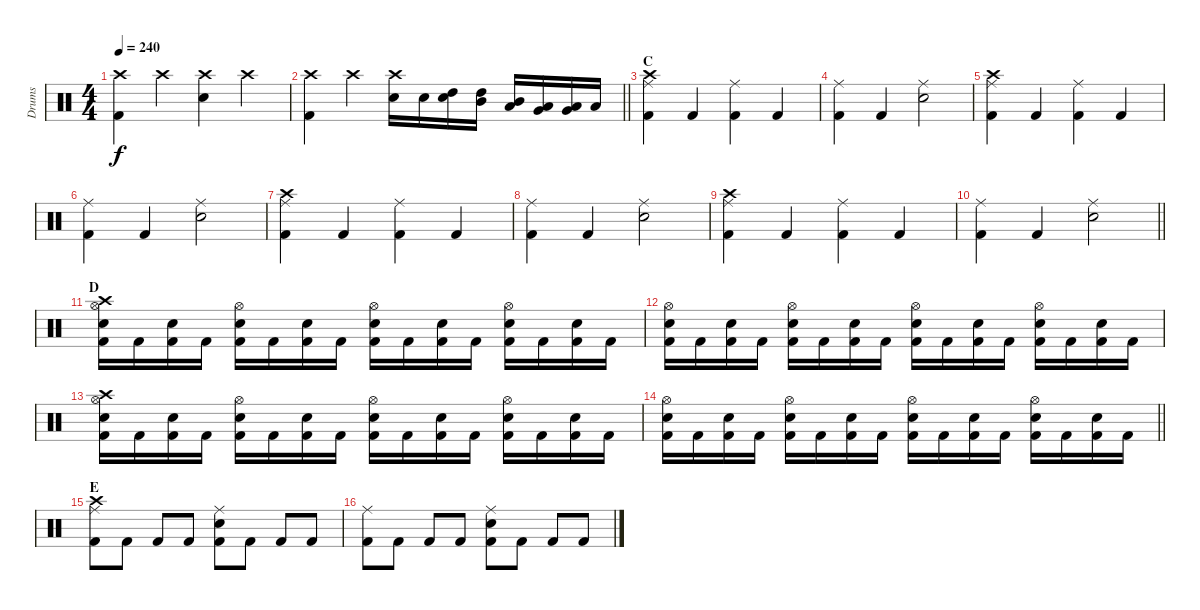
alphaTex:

\track ("Drums" "Drums") {instrument percussion}
\staff {score}
\articulation defaults
\ts (4 4)
\tempo 240
\clef neutral
\ks c
("Kick (hit) 2" "Crash high (hit)").4{dy f} "Crash high (hit)".4 ("Snare (hit) 2" "Crash high (hit)").4 "Crash high (hit)".4 |
\barLineRight lightlight
("Kick (hit) 2" "Crash high (hit)").4 "Crash high (hit)".4 ("Snare (hit) 2" "Crash high (hit)").16 "Snare (hit) 2".16 ("Snare (hit) 2" "High Tom (hit)").16 ("High Tom (hit)" "Mid Tom (hit)").16 ("Mid Tom (hit)" "Low Tom (hit)").16 ("Low Tom (hit)" "Very Low Tom (hit)").16 ("Very Low Tom (hit)" "Low Floor Tom (hit)").16 "Low Floor Tom (hit)".16 |
\section ("" "C")
("Kick (hit) 2" "Crash high (hit)" "Ride (middle)").4 "Kick (hit) 2".4 ("Kick (hit) 2" "Ride (middle)").4 "Kick (hit) 2".4 |
("Kick (hit) 2" "Ride (middle)").4 "Kick (hit) 2".4 ("Snare (hit) 2" "Ride (middle)").2 |
("Kick (hit) 2" "Crash high (hit)" "Ride (middle)").4 "Kick (hit) 2".4 ("Kick (hit) 2" "Ride (middle)").4 "Kick (hit) 2".4 |
("Kick (hit) 2" "Ride (middle)").4 "Kick (hit) 2".4 ("Snare (hit) 2" "Ride (middle)").2 |
("Kick (hit) 2" "Crash high (hit)" "Ride (middle)").4 "Kick (hit) 2".4 ("Kick (hit) 2" "Ride (middle)").4 "Kick (hit) 2".4 |
("Kick (hit) 2" "Ride (middle)").4 "Kick (hit) 2".4 ("Snare (hit) 2" "Ride (middle)").2 |
("Kick (hit) 2" "Crash high (hit)" "Ride (middle)").4 "Kick (hit) 2".4 ("Kick (hit) 2" "Ride (middle)").4 "Kick (hit) 2".4 |
\barLineRight lightlight
("Kick (hit) 2" "Ride (middle)").4 "Kick (hit) 2".4 ("Snare (hit) 2" "Ride (middle)").2 |
\section ("" "D")
("Kick (hit) 2" "Hi-Hat (open)" "Snare (hit) 2" "Crash high (hit)").16 "Kick (hit) 2".16 ("Kick (hit) 2" "Snare (hit) 2").16 "Kick (hit) 2".16 ("Kick (hit) 2" "Hi-Hat (open)" "Snare (hit) 2").16 "Kick (hit) 2".16 ("Kick (hit) 2" "Snare (hit) 2").16 "Kick (hit) 2".16 ("Kick (hit) 2" "Hi-Hat (open)" "Snare (hit) 2").16 "Kick (hit) 2".16 ("Kick (hit) 2" "Snare (hit) 2").16 "Kick (hit) 2".16 ("Kick (hit) 2" "Hi-Hat (open)" "Snare (hit) 2").16 "Kick (hit) 2".16 ("Kick (hit) 2" "Snare (hit) 2").16 "Kick (hit) 2".16 |
("Kick (hit) 2" "Hi-Hat (open)" "Snare (hit) 2").16 "Kick (hit) 2".16 ("Kick (hit) 2" "Snare (hit) 2").16 "Kick (hit) 2".16 ("Kick (hit) 2" "Hi-Hat (open)" "Snare (hit) 2").16 "Kick (hit) 2".16 ("Kick (hit) 2" "Snare (hit) 2").16 "Kick (hit) 2".16 ("Kick (hit) 2" "Hi-Hat (open)" "Snare (hit) 2").16 "Kick (hit) 2".16 ("Kick (hit) 2" "Snare (hit) 2").16 "Kick (hit) 2".16 ("Kick (hit) 2" "Hi-Hat (open)" "Snare (hit) 2").16 "Kick (hit) 2".16 ("Kick (hit) 2" "Snare (hit) 2").16 "Kick (hit) 2".16 |
("Kick (hit) 2" "Hi-Hat (open)" "Snare (hit) 2" "Crash high (hit)").16 "Kick (hit) 2".16 ("Kick (hit) 2" "Snare (hit) 2").16 "Kick (hit) 2".16 ("Kick (hit) 2" "Hi-Hat (open)" "Snare (hit) 2").16 "Kick (hit) 2".16 ("Kick (hit) 2" "Snare (hit) 2").16 "Kick (hit) 2".16 ("Kick (hit) 2" "Hi-Hat (open)" "Snare (hit) 2").16 "Kick (hit) 2".16 ("Kick (hit) 2" "Snare (hit) 2").16 "Kick (hit) 2".16 ("Kick (hit) 2" "Hi-Hat (open)" "Snare (hit) 2").16 "Kick (hit) 2".16 ("Kick (hit) 2" "Snare (hit) 2").16 "Kick (hit) 2".16 |
\barLineRight lightlight
("Kick (hit) 2" "Hi-Hat (open)" "Snare (hit) 2").16 "Kick (hit) 2".16 ("Kick (hit) 2" "Snare (hit) 2").16 "Kick (hit) 2".16 ("Kick (hit) 2" "Hi-Hat (open)" "Snare (hit) 2").16 "Kick (hit) 2".16 ("Kick (hit) 2" "Snare (hit) 2").16 "Kick (hit) 2".16 ("Kick (hit) 2" "Hi-Hat (open)" "Snare (hit) 2").16 "Kick (hit) 2".16 ("Kick (hit) 2" "Snare (hit) 2").16 "Kick (hit) 2".16 ("Kick (hit) 2" "Hi-Hat (open)" "Snare (hit) 2").16 "Kick (hit) 2".16 ("Kick (hit) 2" "Snare (hit) 2").16 "Kick (hit) 2".16 |
\section ("" "E")
("Kick (hit) 2" "Crash high (hit)" "Ride (middle)").8 "Kick (hit) 2".8 "Kick (hit) 2".8 "Kick (hit) 2".8 ("Kick (hit) 2" "Snare (hit) 2" "Ride (middle)").8 "Kick (hit) 2".8 "Kick (hit) 2".8 "Kick (hit) 2".8 |
("Kick (hit) 2" "Ride (middle)").8 "Kick (hit) 2".8 "Kick (hit) 2".8 "Kick (hit) 2".8 ("Kick (hit) 2" "Snare (hit) 2" "Ride (middle)").8 "Kick (hit) 2".8 "Kick (hit) 2".8 "Kick (hit) 2".8
